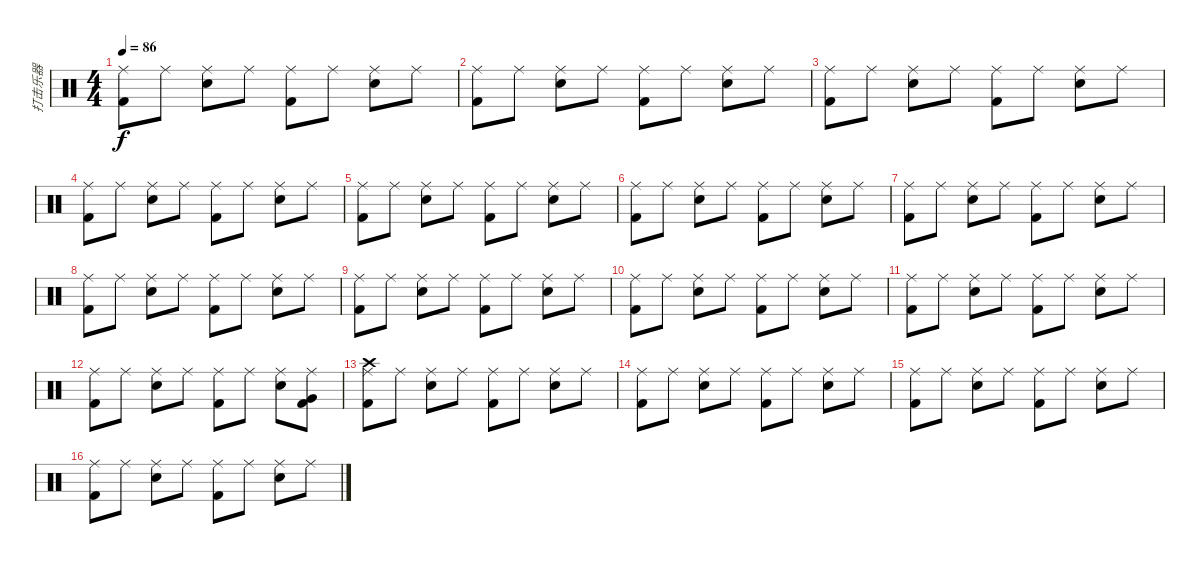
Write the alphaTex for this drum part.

\track ("打击乐器" "打击乐器") {instrument percussion}
\staff {score}
\articulation defaults
\ts (4 4)
\tempo 86
\clef neutral
\ks c
("Ride (middle)" "Kick (hit) 2").8{dy f} "Ride (middle)".8 ("Ride (middle)" "Snare (hit) 2").8 "Ride (middle)".8 ("Ride (middle)" "Kick (hit) 2").8 "Ride (middle)".8 ("Ride (middle)" "Snare (hit) 2").8 "Ride (middle)".8 |
("Ride (middle)" "Kick (hit) 2").8 "Ride (middle)".8 ("Ride (middle)" "Snare (hit) 2").8 "Ride (middle)".8 ("Ride (middle)" "Kick (hit) 2").8 "Ride (middle)".8 ("Ride (middle)" "Snare (hit) 2").8 "Ride (middle)".8 |
("Ride (middle)" "Kick (hit) 2").8 "Ride (middle)".8 ("Ride (middle)" "Snare (hit) 2").8 "Ride (middle)".8 ("Ride (middle)" "Kick (hit) 2").8 "Ride (middle)".8 ("Ride (middle)" "Snare (hit) 2").8 "Ride (middle)".8 |
("Ride (middle)" "Kick (hit) 2").8 "Ride (middle)".8 ("Ride (middle)" "Snare (hit) 2").8 "Ride (middle)".8 ("Ride (middle)" "Kick (hit) 2").8 "Ride (middle)".8 ("Ride (middle)" "Snare (hit) 2").8 "Ride (middle)".8 |
("Ride (middle)" "Kick (hit) 2").8 "Ride (middle)".8 ("Ride (middle)" "Snare (hit) 2").8 "Ride (middle)".8 ("Ride (middle)" "Kick (hit) 2").8 "Ride (middle)".8 ("Ride (middle)" "Snare (hit) 2").8 "Ride (middle)".8 |
("Ride (middle)" "Kick (hit) 2").8 "Ride (middle)".8 ("Ride (middle)" "Snare (hit) 2").8 "Ride (middle)".8 ("Ride (middle)" "Kick (hit) 2").8 "Ride (middle)".8 ("Ride (middle)" "Snare (hit) 2").8 "Ride (middle)".8 |
("Ride (middle)" "Kick (hit) 2").8 "Ride (middle)".8 ("Ride (middle)" "Snare (hit) 2").8 "Ride (middle)".8 ("Ride (middle)" "Kick (hit) 2").8 "Ride (middle)".8 ("Ride (middle)" "Snare (hit) 2").8 "Ride (middle)".8 |
("Ride (middle)" "Kick (hit) 2").8 "Ride (middle)".8 ("Ride (middle)" "Snare (hit) 2").8 "Ride (middle)".8 ("Ride (middle)" "Kick (hit) 2").8 "Ride (middle)".8 ("Ride (middle)" "Snare (hit) 2").8 "Ride (middle)".8 |
("Ride (middle)" "Kick (hit) 2").8 "Ride (middle)".8 ("Ride (middle)" "Snare (hit) 2").8 "Ride (middle)".8 ("Ride (middle)" "Kick (hit) 2").8 "Ride (middle)".8 ("Ride (middle)" "Snare (hit) 2").8 "Ride (middle)".8 |
("Ride (middle)" "Kick (hit) 2").8 "Ride (middle)".8 ("Ride (middle)" "Snare (hit) 2").8 "Ride (middle)".8 ("Ride (middle)" "Kick (hit) 2").8 "Ride (middle)".8 ("Ride (middle)" "Snare (hit) 2").8 "Ride (middle)".8 |
("Ride (middle)" "Kick (hit) 2").8 "Ride (middle)".8 ("Ride (middle)" "Snare (hit) 2").8 "Ride (middle)".8 ("Ride (middle)" "Kick (hit) 2").8 "Ride (middle)".8 ("Ride (middle)" "Snare (hit) 2").8 "Ride (middle)".8 |
("Ride (middle)" "Kick (hit) 2").8 "Ride (middle)".8 ("Ride (middle)" "Snare (hit) 2").8 "Ride (middle)".8 ("Ride (middle)" "Kick (hit) 2").8 "Ride (middle)".8 ("Ride (middle)" "Electric Snare (hit)").8 ("Ride (middle)" "Kick (hit) 2" "Very Low Tom (hit)").8 |
("Ride (middle)" "Kick (hit) 2" "Crash high (hit)").8 "Ride (middle)".8 ("Ride (middle)" "Snare (hit) 2").8 "Ride (middle)".8 ("Ride (middle)" "Kick (hit) 2").8 "Ride (middle)".8 ("Ride (middle)" "Snare (hit) 2").8 "Ride (middle)".8 |
("Ride (middle)" "Kick (hit) 2").8 "Ride (middle)".8 ("Ride (middle)" "Snare (hit) 2").8 "Ride (middle)".8 ("Ride (middle)" "Kick (hit) 2").8 "Ride (middle)".8 ("Ride (middle)" "Snare (hit) 2").8 "Ride (middle)".8 |
("Ride (middle)" "Kick (hit) 2").8 "Ride (middle)".8 ("Ride (middle)" "Snare (hit) 2").8 "Ride (middle)".8 ("Ride (middle)" "Kick (hit) 2").8 "Ride (middle)".8 ("Ride (middle)" "Snare (hit) 2").8 "Ride (middle)".8 |
("Ride (middle)" "Kick (hit) 2").8 "Ride (middle)".8 ("Ride (middle)" "Snare (hit) 2").8 "Ride (middle)".8 ("Ride (middle)" "Kick (hit) 2").8 "Ride (middle)".8 ("Ride (middle)" "Snare (hit) 2").8 "Ride (middle)".8
